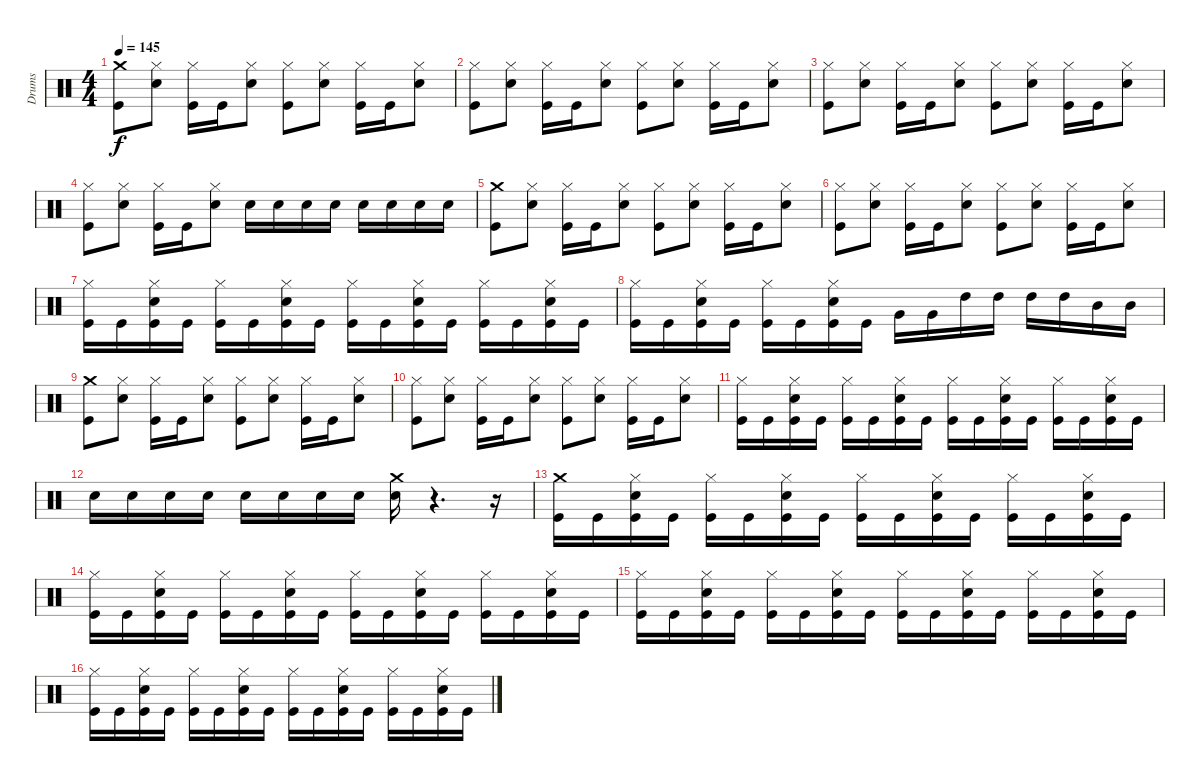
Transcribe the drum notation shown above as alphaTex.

\track ("Drums" "Drums") {instrument percussion}
\staff {score}
\articulation defaults
\ts (4 4)
\tempo 145
\clef neutral
\ks c
("Crash medium (hit)" "Kick (hit)").8{dy f} ("Hi-Hat (closed)" "Snare (hit) 2").8 ("Hi-Hat (closed)" "Kick (hit)").16 "Kick (hit)".16 ("Hi-Hat (closed)" "Snare (hit) 2").8 ("Hi-Hat (closed)" "Kick (hit)").8 ("Hi-Hat (closed)" "Snare (hit) 2").8 ("Hi-Hat (closed)" "Kick (hit)").16 "Kick (hit)".16 ("Hi-Hat (closed)" "Snare (hit) 2").8 |
("Hi-Hat (closed)" "Kick (hit)").8 ("Hi-Hat (closed)" "Snare (hit) 2").8 ("Hi-Hat (closed)" "Kick (hit)").16 "Kick (hit)".16 ("Hi-Hat (closed)" "Snare (hit) 2").8 ("Hi-Hat (closed)" "Kick (hit)").8 ("Hi-Hat (closed)" "Snare (hit) 2").8 ("Hi-Hat (closed)" "Kick (hit)").16 "Kick (hit)".16 ("Hi-Hat (closed)" "Snare (hit) 2").8 |
("Hi-Hat (closed)" "Kick (hit)").8 ("Hi-Hat (closed)" "Snare (hit) 2").8 ("Hi-Hat (closed)" "Kick (hit)").16 "Kick (hit)".16 ("Hi-Hat (closed)" "Snare (hit) 2").8 ("Hi-Hat (closed)" "Kick (hit)").8 ("Hi-Hat (closed)" "Snare (hit) 2").8 ("Hi-Hat (closed)" "Kick (hit)").16 "Kick (hit)".16 ("Hi-Hat (closed)" "Snare (hit) 2").8 |
("Hi-Hat (closed)" "Kick (hit)").8 ("Hi-Hat (closed)" "Snare (hit) 2").8 ("Hi-Hat (closed)" "Kick (hit)").16 "Kick (hit)".16 ("Hi-Hat (closed)" "Snare (hit) 2").8 "Snare (hit) 2".16 "Snare (hit) 2".16 "Snare (hit) 2".16 "Snare (hit) 2".16 "Snare (hit) 2".16 "Snare (hit) 2".16 "Snare (hit) 2".16 "Snare (hit) 2".16 |
("Crash medium (hit)" "Kick (hit)").8 ("Hi-Hat (closed)" "Snare (hit) 2").8 ("Hi-Hat (closed)" "Kick (hit)").16 "Kick (hit)".16 ("Hi-Hat (closed)" "Snare (hit) 2").8 ("Hi-Hat (closed)" "Kick (hit)").8 ("Hi-Hat (closed)" "Snare (hit) 2").8 ("Hi-Hat (closed)" "Kick (hit)").16 "Kick (hit)".16 ("Hi-Hat (closed)" "Snare (hit) 2").8 |
("Hi-Hat (closed)" "Kick (hit)").8 ("Hi-Hat (closed)" "Snare (hit) 2").8 ("Hi-Hat (closed)" "Kick (hit)").16 "Kick (hit)".16 ("Hi-Hat (closed)" "Snare (hit) 2").8 ("Hi-Hat (closed)" "Kick (hit)").8 ("Hi-Hat (closed)" "Snare (hit) 2").8 ("Hi-Hat (closed)" "Kick (hit)").16 "Kick (hit)".16 ("Hi-Hat (closed)" "Snare (hit) 2").8 |
("Hi-Hat (closed)" "Kick (hit)").16 "Kick (hit)".16 ("Hi-Hat (closed)" "Snare (hit) 2" "Kick (hit)").16 "Kick (hit)".16 ("Hi-Hat (closed)" "Kick (hit)").16 "Kick (hit)".16 ("Hi-Hat (closed)" "Snare (hit) 2" "Kick (hit)").16 "Kick (hit)".16 ("Hi-Hat (closed)" "Kick (hit)").16 "Kick (hit)".16 ("Hi-Hat (closed)" "Snare (hit) 2" "Kick (hit)").16 "Kick (hit)".16 ("Hi-Hat (closed)" "Kick (hit)").16 "Kick (hit)".16 ("Hi-Hat (closed)" "Snare (hit) 2" "Kick (hit)").16 "Kick (hit)".16 |
("Hi-Hat (closed)" "Kick (hit)").16 "Kick (hit)".16 ("Hi-Hat (closed)" "Snare (hit) 2" "Kick (hit)").16 "Kick (hit)".16 ("Hi-Hat (closed)" "Kick (hit)").16 "Kick (hit)".16 ("Hi-Hat (closed)" "Snare (hit) 2" "Kick (hit)").16 "Kick (hit)".16 "Very Low Tom (hit)".16 "Very Low Tom (hit)".16 "High Tom (hit)".16 "High Tom (hit)".16 "High Tom (hit)".16 "High Tom (hit)".16 "Mid Tom (hit)".16 "Mid Tom (hit)".16 |
("Crash medium (hit)" "Kick (hit)").8 ("Hi-Hat (closed)" "Snare (hit) 2").8 ("Hi-Hat (closed)" "Kick (hit)").16 "Kick (hit)".16 ("Hi-Hat (closed)" "Snare (hit) 2").8 ("Hi-Hat (closed)" "Kick (hit)").8 ("Hi-Hat (closed)" "Snare (hit) 2").8 ("Hi-Hat (closed)" "Kick (hit)").16 "Kick (hit)".16 ("Hi-Hat (closed)" "Snare (hit) 2").8 |
("Hi-Hat (closed)" "Kick (hit)").8 ("Hi-Hat (closed)" "Snare (hit) 2").8 ("Hi-Hat (closed)" "Kick (hit)").16 "Kick (hit)".16 ("Hi-Hat (closed)" "Snare (hit) 2").8 ("Hi-Hat (closed)" "Kick (hit)").8 ("Hi-Hat (closed)" "Snare (hit) 2").8 ("Hi-Hat (closed)" "Kick (hit)").16 "Kick (hit)".16 ("Hi-Hat (closed)" "Snare (hit) 2").8 |
("Hi-Hat (closed)" "Kick (hit)").16 "Kick (hit)".16 ("Hi-Hat (closed)" "Snare (hit) 2" "Kick (hit)").16 "Kick (hit)".16 ("Hi-Hat (closed)" "Kick (hit)").16 "Kick (hit)".16 ("Hi-Hat (closed)" "Snare (hit) 2" "Kick (hit)").16 "Kick (hit)".16 ("Hi-Hat (closed)" "Kick (hit)").16 "Kick (hit)".16 ("Hi-Hat (closed)" "Snare (hit) 2" "Kick (hit)").16 "Kick (hit)".16 ("Hi-Hat (closed)" "Kick (hit)").16 "Kick (hit)".16 ("Hi-Hat (closed)" "Snare (hit) 2" "Kick (hit)").16 "Kick (hit)".16 |
"Snare (hit) 2".16 "Snare (hit) 2".16 "Snare (hit) 2".16 "Snare (hit) 2".16 "Snare (hit) 2".16 "Snare (hit) 2".16 "Snare (hit) 2".16 "Snare (hit) 2".16 ("Snare (hit) 2" "Crash medium (hit)").16 r.4{d} r.16 |
("Crash medium (hit)" "Kick (hit)").16 "Kick (hit)".16 ("Hi-Hat (closed)" "Snare (hit) 2" "Kick (hit)").16 "Kick (hit)".16 ("Hi-Hat (closed)" "Kick (hit)").16 "Kick (hit)".16 ("Hi-Hat (closed)" "Snare (hit) 2" "Kick (hit)").16 "Kick (hit)".16 ("Hi-Hat (closed)" "Kick (hit)").16 "Kick (hit)".16 ("Hi-Hat (closed)" "Snare (hit) 2" "Kick (hit)").16 "Kick (hit)".16 ("Hi-Hat (closed)" "Kick (hit)").16 "Kick (hit)".16 ("Hi-Hat (closed)" "Snare (hit) 2" "Kick (hit)").16 "Kick (hit)".16 |
("Hi-Hat (closed)" "Kick (hit)").16 "Kick (hit)".16 ("Hi-Hat (closed)" "Snare (hit) 2" "Kick (hit)").16 "Kick (hit)".16 ("Hi-Hat (closed)" "Kick (hit)").16 "Kick (hit)".16 ("Hi-Hat (closed)" "Snare (hit) 2" "Kick (hit)").16 "Kick (hit)".16 ("Hi-Hat (closed)" "Kick (hit)").16 "Kick (hit)".16 ("Hi-Hat (closed)" "Snare (hit) 2" "Kick (hit)").16 "Kick (hit)".16 ("Hi-Hat (closed)" "Kick (hit)").16 "Kick (hit)".16 ("Hi-Hat (closed)" "Snare (hit) 2" "Kick (hit)").16 "Kick (hit)".16 |
("Hi-Hat (closed)" "Kick (hit)").16 "Kick (hit)".16 ("Hi-Hat (closed)" "Snare (hit) 2" "Kick (hit)").16 "Kick (hit)".16 ("Hi-Hat (closed)" "Kick (hit)").16 "Kick (hit)".16 ("Hi-Hat (closed)" "Snare (hit) 2" "Kick (hit)").16 "Kick (hit)".16 ("Hi-Hat (closed)" "Kick (hit)").16 "Kick (hit)".16 ("Hi-Hat (closed)" "Snare (hit) 2" "Kick (hit)").16 "Kick (hit)".16 ("Hi-Hat (closed)" "Kick (hit)").16 "Kick (hit)".16 ("Hi-Hat (closed)" "Snare (hit) 2" "Kick (hit)").16 "Kick (hit)".16 |
("Hi-Hat (closed)" "Kick (hit)").16 "Kick (hit)".16 ("Hi-Hat (closed)" "Snare (hit) 2" "Kick (hit)").16 "Kick (hit)".16 ("Hi-Hat (closed)" "Kick (hit)").16 "Kick (hit)".16 ("Hi-Hat (closed)" "Snare (hit) 2" "Kick (hit)").16 "Kick (hit)".16 ("Hi-Hat (closed)" "Kick (hit)").16 "Kick (hit)".16 ("Hi-Hat (closed)" "Snare (hit) 2" "Kick (hit)").16 "Kick (hit)".16 ("Hi-Hat (closed)" "Kick (hit)").16 "Kick (hit)".16 ("Hi-Hat (closed)" "Snare (hit) 2" "Kick (hit)").16 "Kick (hit)".16
